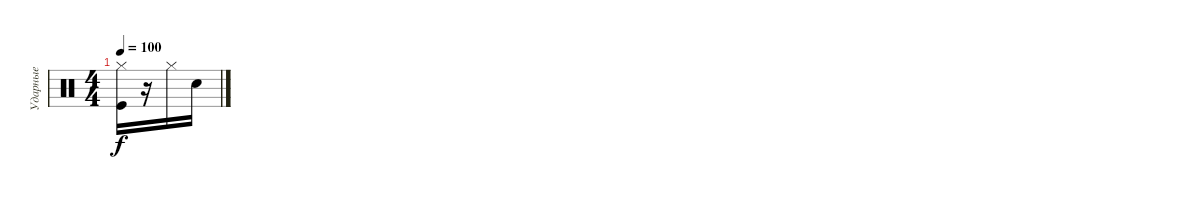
\track ("Ударные" "Ударные") {instrument percussion}
\staff {score}
\articulation defaults
\ts (4 4)
\tempo 100
\clef neutral
\ks c
("Hi-Hat (closed)" "Kick (hit)").16{dy f} r.16 "Hi-Hat (closed)".16 "Electric Snare (hit)".16
